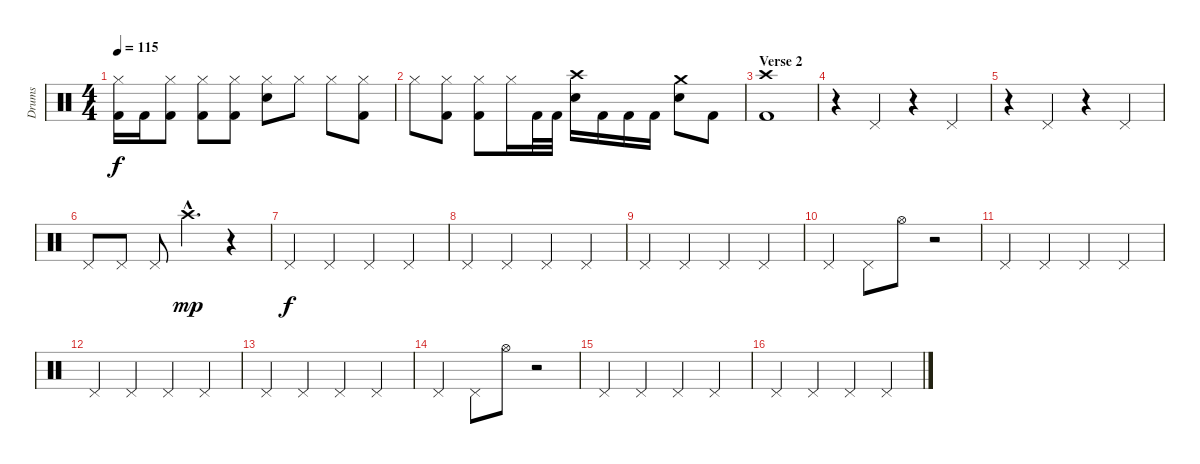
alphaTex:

\track ("Drums" "Drums") {instrument percussion}
\staff {score}
\articulation defaults
\ts (4 4)
\tempo 115
\clef neutral
\ks c
("Hi-Hat (closed)" "Kick (hit) 2").16{dy f} "Kick (hit) 2".16 ("Hi-Hat (closed)" "Kick (hit) 2").8 ("Hi-Hat (closed)" "Kick (hit) 2").8 ("Hi-Hat (closed)" "Kick (hit) 2").8 ("Hi-Hat (closed)" "Snare (hit) 2").8 "Hi-Hat (closed)".8 "Hi-Hat (closed)".8 ("Hi-Hat (closed)" "Kick (hit) 2").8 |
"Hi-Hat (closed)".8 ("Hi-Hat (closed)" "Kick (hit) 2").8 ("Hi-Hat (closed)" "Kick (hit) 2").8 "Hi-Hat (closed)".16 "Kick (hit) 2".32 "Kick (hit) 2".32 ("Crash high (hit)" "Snare (hit) 2").16 "Kick (hit) 2".16 "Kick (hit) 2".16 "Kick (hit) 2".16 ("Crash medium (hit)" "Snare (hit) 2").8 "Kick (hit) 2".8 |
\section ("" "Verse 2")
("Crash high (hit)" "Kick (hit) 2").1 |
r.4 "Pedal Hi-Hat (hit)".4 r.4 "Pedal Hi-Hat (hit)".4 |
r.4 "Pedal Hi-Hat (hit)".4 r.4 "Pedal Hi-Hat (hit)".4 |
"Pedal Hi-Hat (hit)".8 "Pedal Hi-Hat (hit)".8 "Pedal Hi-Hat (hit)".8 "Crash high (hit)"{hac}.4{d dy mp} r.4 |
"Pedal Hi-Hat (hit)".4{dy f} "Pedal Hi-Hat (hit)".4 "Pedal Hi-Hat (hit)".4 "Pedal Hi-Hat (hit)".4 |
"Pedal Hi-Hat (hit)".4 "Pedal Hi-Hat (hit)".4 "Pedal Hi-Hat (hit)".4 "Pedal Hi-Hat (hit)".4 |
"Pedal Hi-Hat (hit)".4 "Pedal Hi-Hat (hit)".4 "Pedal Hi-Hat (hit)".4 "Pedal Hi-Hat (hit)".4 |
"Pedal Hi-Hat (hit)".4 "Pedal Hi-Hat (hit)".8 "Hi-Hat (open)".8 r.2 |
"Pedal Hi-Hat (hit)".4 "Pedal Hi-Hat (hit)".4 "Pedal Hi-Hat (hit)".4 "Pedal Hi-Hat (hit)".4 |
"Pedal Hi-Hat (hit)".4 "Pedal Hi-Hat (hit)".4 "Pedal Hi-Hat (hit)".4 "Pedal Hi-Hat (hit)".4 |
"Pedal Hi-Hat (hit)".4 "Pedal Hi-Hat (hit)".4 "Pedal Hi-Hat (hit)".4 "Pedal Hi-Hat (hit)".4 |
"Pedal Hi-Hat (hit)".4 "Pedal Hi-Hat (hit)".8 "Hi-Hat (open)".8 r.2 |
"Pedal Hi-Hat (hit)".4 "Pedal Hi-Hat (hit)".4 "Pedal Hi-Hat (hit)".4 "Pedal Hi-Hat (hit)".4 |
"Pedal Hi-Hat (hit)".4 "Pedal Hi-Hat (hit)".4 "Pedal Hi-Hat (hit)".4 "Pedal Hi-Hat (hit)".4
